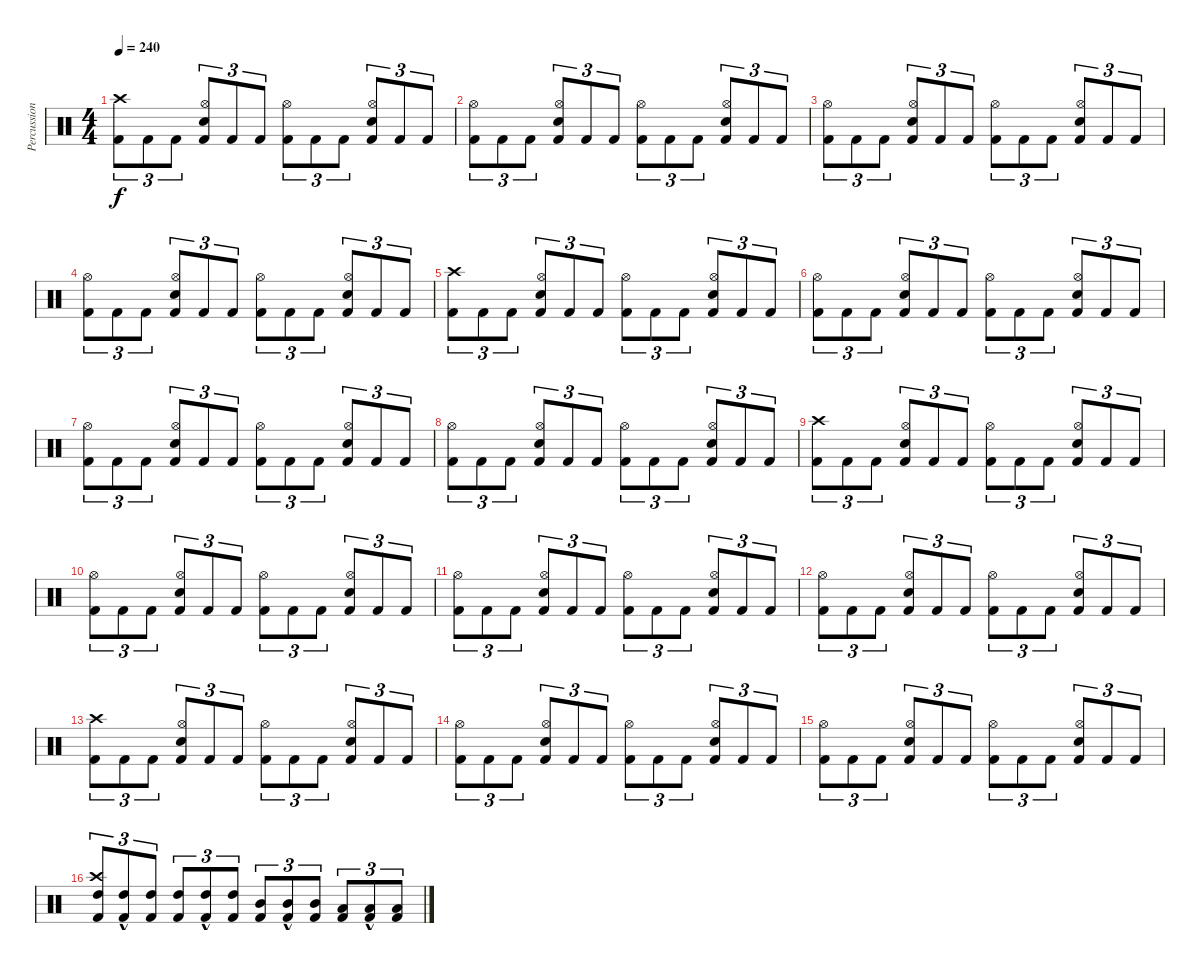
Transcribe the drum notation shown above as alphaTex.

\track ("Percussion" "Percussion") {instrument percussion}
\staff {score}
\articulation defaults
\ts (4 4)
\tempo 240
\clef neutral
\ks c
("Kick (hit) 2" "Crash high (hit)").8{tu (3 2) dy f} "Kick (hit) 2".8{tu (3 2)} "Kick (hit) 2".8{tu (3 2)} ("Kick (hit) 2" "Hi-Hat (open)" "Electric Snare (hit)").8{tu (3 2)} "Kick (hit) 2".8{tu (3 2)} "Kick (hit) 2".8{tu (3 2)} ("Kick (hit) 2" "Hi-Hat (open)").8{tu (3 2)} "Kick (hit) 2".8{tu (3 2)} "Kick (hit) 2".8{tu (3 2)} ("Kick (hit) 2" "Hi-Hat (open)" "Electric Snare (hit)").8{tu (3 2)} "Kick (hit) 2".8{tu (3 2)} "Kick (hit) 2".8{tu (3 2)} |
("Kick (hit) 2" "Hi-Hat (open)").8{tu (3 2)} "Kick (hit) 2".8{tu (3 2)} "Kick (hit) 2".8{tu (3 2)} ("Kick (hit) 2" "Hi-Hat (open)" "Electric Snare (hit)").8{tu (3 2)} "Kick (hit) 2".8{tu (3 2)} "Kick (hit) 2".8{tu (3 2)} ("Kick (hit) 2" "Hi-Hat (open)").8{tu (3 2)} "Kick (hit) 2".8{tu (3 2)} "Kick (hit) 2".8{tu (3 2)} ("Kick (hit) 2" "Hi-Hat (open)" "Electric Snare (hit)").8{tu (3 2)} "Kick (hit) 2".8{tu (3 2)} "Kick (hit) 2".8{tu (3 2)} |
("Kick (hit) 2" "Hi-Hat (open)").8{tu (3 2)} "Kick (hit) 2".8{tu (3 2)} "Kick (hit) 2".8{tu (3 2)} ("Kick (hit) 2" "Hi-Hat (open)" "Electric Snare (hit)").8{tu (3 2)} "Kick (hit) 2".8{tu (3 2)} "Kick (hit) 2".8{tu (3 2)} ("Kick (hit) 2" "Hi-Hat (open)").8{tu (3 2)} "Kick (hit) 2".8{tu (3 2)} "Kick (hit) 2".8{tu (3 2)} ("Kick (hit) 2" "Hi-Hat (open)" "Electric Snare (hit)").8{tu (3 2)} "Kick (hit) 2".8{tu (3 2)} "Kick (hit) 2".8{tu (3 2)} |
("Kick (hit) 2" "Hi-Hat (open)").8{tu (3 2)} "Kick (hit) 2".8{tu (3 2)} "Kick (hit) 2".8{tu (3 2)} ("Kick (hit) 2" "Hi-Hat (open)" "Electric Snare (hit)").8{tu (3 2)} "Kick (hit) 2".8{tu (3 2)} "Kick (hit) 2".8{tu (3 2)} ("Kick (hit) 2" "Hi-Hat (open)").8{tu (3 2)} "Kick (hit) 2".8{tu (3 2)} "Kick (hit) 2".8{tu (3 2)} ("Kick (hit) 2" "Hi-Hat (open)" "Electric Snare (hit)").8{tu (3 2)} "Kick (hit) 2".8{tu (3 2)} "Kick (hit) 2".8{tu (3 2)} |
("Kick (hit) 2" "Crash high (hit)").8{tu (3 2)} "Kick (hit) 2".8{tu (3 2)} "Kick (hit) 2".8{tu (3 2)} ("Kick (hit) 2" "Hi-Hat (open)" "Electric Snare (hit)").8{tu (3 2)} "Kick (hit) 2".8{tu (3 2)} "Kick (hit) 2".8{tu (3 2)} ("Kick (hit) 2" "Hi-Hat (open)").8{tu (3 2)} "Kick (hit) 2".8{tu (3 2)} "Kick (hit) 2".8{tu (3 2)} ("Kick (hit) 2" "Hi-Hat (open)" "Electric Snare (hit)").8{tu (3 2)} "Kick (hit) 2".8{tu (3 2)} "Kick (hit) 2".8{tu (3 2)} |
("Kick (hit) 2" "Hi-Hat (open)").8{tu (3 2)} "Kick (hit) 2".8{tu (3 2)} "Kick (hit) 2".8{tu (3 2)} ("Kick (hit) 2" "Hi-Hat (open)" "Electric Snare (hit)").8{tu (3 2)} "Kick (hit) 2".8{tu (3 2)} "Kick (hit) 2".8{tu (3 2)} ("Kick (hit) 2" "Hi-Hat (open)").8{tu (3 2)} "Kick (hit) 2".8{tu (3 2)} "Kick (hit) 2".8{tu (3 2)} ("Kick (hit) 2" "Hi-Hat (open)" "Electric Snare (hit)").8{tu (3 2)} "Kick (hit) 2".8{tu (3 2)} "Kick (hit) 2".8{tu (3 2)} |
("Kick (hit) 2" "Hi-Hat (open)").8{tu (3 2)} "Kick (hit) 2".8{tu (3 2)} "Kick (hit) 2".8{tu (3 2)} ("Kick (hit) 2" "Hi-Hat (open)" "Electric Snare (hit)").8{tu (3 2)} "Kick (hit) 2".8{tu (3 2)} "Kick (hit) 2".8{tu (3 2)} ("Kick (hit) 2" "Hi-Hat (open)").8{tu (3 2)} "Kick (hit) 2".8{tu (3 2)} "Kick (hit) 2".8{tu (3 2)} ("Kick (hit) 2" "Hi-Hat (open)" "Electric Snare (hit)").8{tu (3 2)} "Kick (hit) 2".8{tu (3 2)} "Kick (hit) 2".8{tu (3 2)} |
("Kick (hit) 2" "Hi-Hat (open)").8{tu (3 2)} "Kick (hit) 2".8{tu (3 2)} "Kick (hit) 2".8{tu (3 2)} ("Kick (hit) 2" "Hi-Hat (open)" "Electric Snare (hit)").8{tu (3 2)} "Kick (hit) 2".8{tu (3 2)} "Kick (hit) 2".8{tu (3 2)} ("Kick (hit) 2" "Hi-Hat (open)").8{tu (3 2)} "Kick (hit) 2".8{tu (3 2)} "Kick (hit) 2".8{tu (3 2)} ("Kick (hit) 2" "Hi-Hat (open)" "Electric Snare (hit)").8{tu (3 2)} "Kick (hit) 2".8{tu (3 2)} "Kick (hit) 2".8{tu (3 2)} |
("Kick (hit) 2" "Crash high (hit)").8{tu (3 2)} "Kick (hit) 2".8{tu (3 2)} "Kick (hit) 2".8{tu (3 2)} ("Kick (hit) 2" "Hi-Hat (open)" "Electric Snare (hit)").8{tu (3 2)} "Kick (hit) 2".8{tu (3 2)} "Kick (hit) 2".8{tu (3 2)} ("Kick (hit) 2" "Hi-Hat (open)").8{tu (3 2)} "Kick (hit) 2".8{tu (3 2)} "Kick (hit) 2".8{tu (3 2)} ("Kick (hit) 2" "Hi-Hat (open)" "Electric Snare (hit)").8{tu (3 2)} "Kick (hit) 2".8{tu (3 2)} "Kick (hit) 2".8{tu (3 2)} |
("Kick (hit) 2" "Hi-Hat (open)").8{tu (3 2)} "Kick (hit) 2".8{tu (3 2)} "Kick (hit) 2".8{tu (3 2)} ("Kick (hit) 2" "Hi-Hat (open)" "Electric Snare (hit)").8{tu (3 2)} "Kick (hit) 2".8{tu (3 2)} "Kick (hit) 2".8{tu (3 2)} ("Kick (hit) 2" "Hi-Hat (open)").8{tu (3 2)} "Kick (hit) 2".8{tu (3 2)} "Kick (hit) 2".8{tu (3 2)} ("Kick (hit) 2" "Hi-Hat (open)" "Electric Snare (hit)").8{tu (3 2)} "Kick (hit) 2".8{tu (3 2)} "Kick (hit) 2".8{tu (3 2)} |
("Kick (hit) 2" "Hi-Hat (open)").8{tu (3 2)} "Kick (hit) 2".8{tu (3 2)} "Kick (hit) 2".8{tu (3 2)} ("Kick (hit) 2" "Hi-Hat (open)" "Electric Snare (hit)").8{tu (3 2)} "Kick (hit) 2".8{tu (3 2)} "Kick (hit) 2".8{tu (3 2)} ("Kick (hit) 2" "Hi-Hat (open)").8{tu (3 2)} "Kick (hit) 2".8{tu (3 2)} "Kick (hit) 2".8{tu (3 2)} ("Kick (hit) 2" "Hi-Hat (open)" "Electric Snare (hit)").8{tu (3 2)} "Kick (hit) 2".8{tu (3 2)} "Kick (hit) 2".8{tu (3 2)} |
("Kick (hit) 2" "Hi-Hat (open)").8{tu (3 2)} "Kick (hit) 2".8{tu (3 2)} "Kick (hit) 2".8{tu (3 2)} ("Kick (hit) 2" "Hi-Hat (open)" "Electric Snare (hit)").8{tu (3 2)} "Kick (hit) 2".8{tu (3 2)} "Kick (hit) 2".8{tu (3 2)} ("Kick (hit) 2" "Hi-Hat (open)").8{tu (3 2)} "Kick (hit) 2".8{tu (3 2)} "Kick (hit) 2".8{tu (3 2)} ("Kick (hit) 2" "Hi-Hat (open)" "Electric Snare (hit)").8{tu (3 2)} "Kick (hit) 2".8{tu (3 2)} "Kick (hit) 2".8{tu (3 2)} |
("Kick (hit) 2" "Crash high (hit)").8{tu (3 2)} "Kick (hit) 2".8{tu (3 2)} "Kick (hit) 2".8{tu (3 2)} ("Kick (hit) 2" "Hi-Hat (open)" "Electric Snare (hit)").8{tu (3 2)} "Kick (hit) 2".8{tu (3 2)} "Kick (hit) 2".8{tu (3 2)} ("Kick (hit) 2" "Hi-Hat (open)").8{tu (3 2)} "Kick (hit) 2".8{tu (3 2)} "Kick (hit) 2".8{tu (3 2)} ("Kick (hit) 2" "Hi-Hat (open)" "Electric Snare (hit)").8{tu (3 2)} "Kick (hit) 2".8{tu (3 2)} "Kick (hit) 2".8{tu (3 2)} |
("Kick (hit) 2" "Hi-Hat (open)").8{tu (3 2)} "Kick (hit) 2".8{tu (3 2)} "Kick (hit) 2".8{tu (3 2)} ("Kick (hit) 2" "Hi-Hat (open)" "Electric Snare (hit)").8{tu (3 2)} "Kick (hit) 2".8{tu (3 2)} "Kick (hit) 2".8{tu (3 2)} ("Kick (hit) 2" "Hi-Hat (open)").8{tu (3 2)} "Kick (hit) 2".8{tu (3 2)} "Kick (hit) 2".8{tu (3 2)} ("Kick (hit) 2" "Hi-Hat (open)" "Electric Snare (hit)").8{tu (3 2)} "Kick (hit) 2".8{tu (3 2)} "Kick (hit) 2".8{tu (3 2)} |
("Kick (hit) 2" "Hi-Hat (open)").8{tu (3 2)} "Kick (hit) 2".8{tu (3 2)} "Kick (hit) 2".8{tu (3 2)} ("Kick (hit) 2" "Hi-Hat (open)" "Electric Snare (hit)").8{tu (3 2)} "Kick (hit) 2".8{tu (3 2)} "Kick (hit) 2".8{tu (3 2)} ("Kick (hit) 2" "Hi-Hat (open)").8{tu (3 2)} "Kick (hit) 2".8{tu (3 2)} "Kick (hit) 2".8{tu (3 2)} ("Kick (hit) 2" "Hi-Hat (open)" "Electric Snare (hit)").8{tu (3 2)} "Kick (hit) 2".8{tu (3 2)} "Kick (hit) 2".8{tu (3 2)} |
("Kick (hit) 2" "High Tom (hit)" "Crash high (hit)").8{tu (3 2)} ("Kick (hit) 2"{hac} "High Tom (hit)"{hac}).8{tu (3 2)} ("Kick (hit) 2" "High Tom (hit)").8{tu (3 2)} ("Kick (hit) 2" "High Tom (hit)").8{tu (3 2)} ("Kick (hit) 2"{hac} "High Tom (hit)"{hac}).8{tu (3 2)} ("Kick (hit) 2" "High Tom (hit)").8{tu (3 2)} ("Kick (hit) 2" "Mid Tom (hit)").8{tu (3 2)} ("Kick (hit) 2"{hac} "Mid Tom (hit)"{hac}).8{tu (3 2)} ("Kick (hit) 2" "Mid Tom (hit)").8{tu (3 2)} ("Kick (hit) 2" "Low Tom (hit)").8{tu (3 2)} ("Kick (hit) 2"{hac} "Low Tom (hit)"{hac}).8{tu (3 2)} ("Kick (hit) 2" "Low Tom (hit)").8{tu (3 2)}
